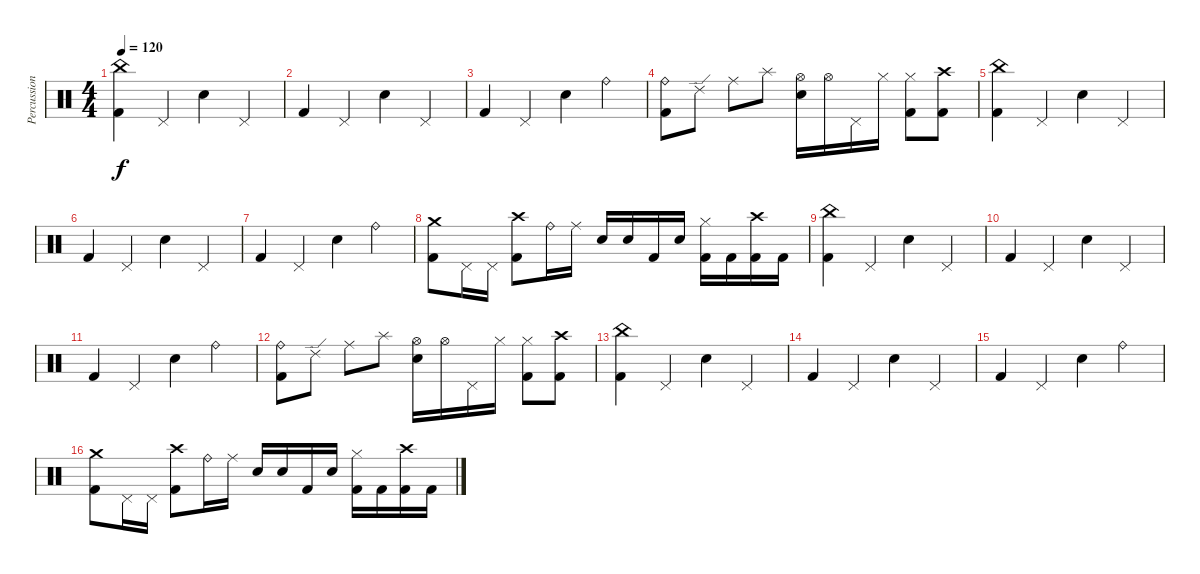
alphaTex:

\track ("Percussion" "Percussion") {instrument percussion}
\staff {score}
\articulation defaults
\ts (4 4)
\tempo 120
\clef neutral
\ks c
("China (hit)" "Kick (hit) 2").4{dy f} "Pedal Hi-Hat (hit)".4 "Electric Snare (hit)".4 "Pedal Hi-Hat (hit)".4 |
"Kick (hit) 2".4 "Pedal Hi-Hat (hit)".4 "Electric Snare (hit)".4 "Pedal Hi-Hat (hit)".4 |
"Kick (hit) 2".4 "Pedal Hi-Hat (hit)".4 "Electric Snare (hit)".4 "Ride (bell)".4 |
("Ride (bell)" "Kick (hit) 2").8 "Ride (edge) 2".8 "Ride (middle)".8 "Splash (hit)".8 ("Hi-Hat (open)" "Electric Snare (hit)").16 "Hi-Hat (open)".16 "Pedal Hi-Hat (hit)".16 "Hi-Hat (closed)".16 ("Hi-Hat (closed)" "Kick (hit) 2").8 ("Crash high (hit)" "Kick (hit) 2").8 |
("China (hit)" "Kick (hit) 2").4 "Pedal Hi-Hat (hit)".4 "Electric Snare (hit)".4 "Pedal Hi-Hat (hit)".4 |
"Kick (hit) 2".4 "Pedal Hi-Hat (hit)".4 "Electric Snare (hit)".4 "Pedal Hi-Hat (hit)".4 |
"Kick (hit) 2".4 "Pedal Hi-Hat (hit)".4 "Electric Snare (hit)".4 "Ride (bell)".4 |
("Crash medium (hit)" "Kick (hit) 2").8 "Pedal Hi-Hat (hit)".16 "Pedal Hi-Hat (hit)".16 ("Crash high (hit)" "Kick (hit) 2").8 "Ride (bell)".16 "Ride (middle)".16 "Electric Snare (hit)".16 "Electric Snare (hit)".16 "Kick (hit) 2".16 "Electric Snare (hit)".16 ("Hi-Hat (closed)" "Kick (hit) 2").16 "Kick (hit) 2".16 ("Crash high (hit)" "Kick (hit) 2").16 "Kick (hit) 2".16 |
("China (hit)" "Kick (hit) 2").4 "Pedal Hi-Hat (hit)".4 "Electric Snare (hit)".4 "Pedal Hi-Hat (hit)".4 |
"Kick (hit) 2".4 "Pedal Hi-Hat (hit)".4 "Electric Snare (hit)".4 "Pedal Hi-Hat (hit)".4 |
"Kick (hit) 2".4 "Pedal Hi-Hat (hit)".4 "Electric Snare (hit)".4 "Ride (bell)".4 |
("Ride (bell)" "Kick (hit) 2").8 "Ride (edge) 2".8 "Ride (middle)".8 "Splash (hit)".8 ("Hi-Hat (open)" "Electric Snare (hit)").16 "Hi-Hat (open)".16 "Pedal Hi-Hat (hit)".16 "Hi-Hat (closed)".16 ("Hi-Hat (closed)" "Kick (hit) 2").8 ("Crash high (hit)" "Kick (hit) 2").8 |
("China (hit)" "Kick (hit) 2").4 "Pedal Hi-Hat (hit)".4 "Electric Snare (hit)".4 "Pedal Hi-Hat (hit)".4 |
"Kick (hit) 2".4 "Pedal Hi-Hat (hit)".4 "Electric Snare (hit)".4 "Pedal Hi-Hat (hit)".4 |
"Kick (hit) 2".4 "Pedal Hi-Hat (hit)".4 "Electric Snare (hit)".4 "Ride (bell)".4 |
("Crash medium (hit)" "Kick (hit) 2").8 "Pedal Hi-Hat (hit)".16 "Pedal Hi-Hat (hit)".16 ("Crash high (hit)" "Kick (hit) 2").8 "Ride (bell)".16 "Ride (middle)".16 "Electric Snare (hit)".16 "Electric Snare (hit)".16 "Kick (hit) 2".16 "Electric Snare (hit)".16 ("Hi-Hat (closed)" "Kick (hit) 2").16 "Kick (hit) 2".16 ("Crash high (hit)" "Kick (hit) 2").16 "Kick (hit) 2".16
